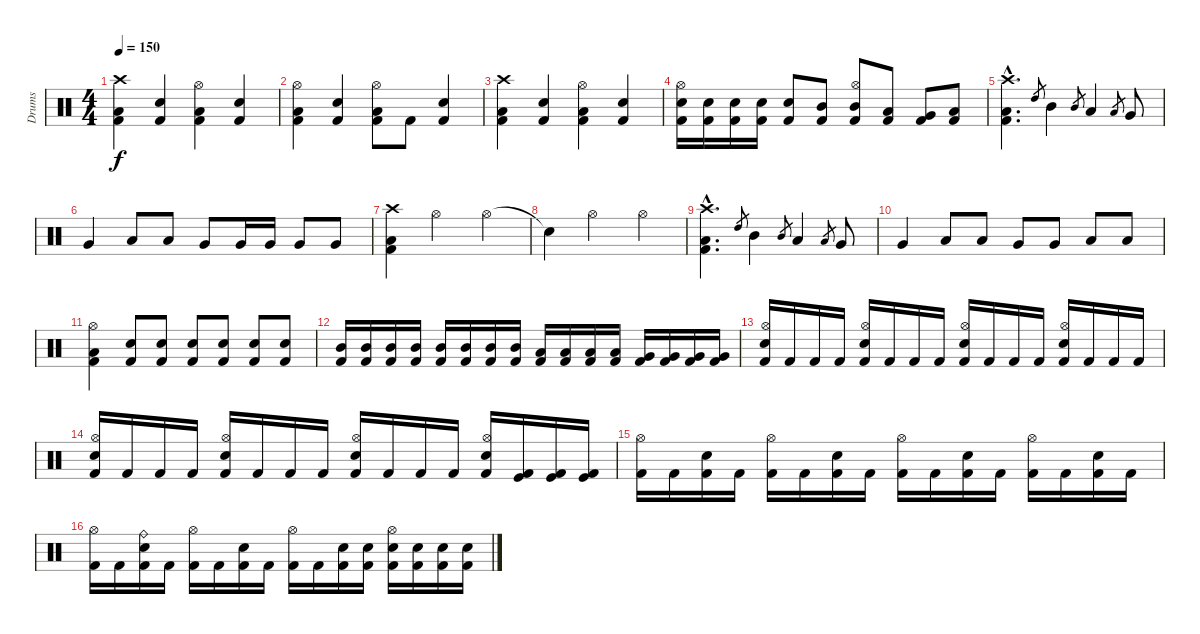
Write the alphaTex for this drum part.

\track ("Drums" "Drums") {instrument percussion}
\staff {score}
\articulation defaults
\ts (4 4)
\tempo 150
\clef neutral
\ks c
("Crash high (hit)" "Low Floor Tom (hit)" "Kick (hit) 2").4{dy f} ("Snare (hit) 2" "Kick (hit) 2").4 ("Hi-Hat (open)" "Low Floor Tom (hit)" "Kick (hit) 2").4 ("Snare (hit) 2" "Kick (hit) 2").4 |
("Hi-Hat (open)" "Low Floor Tom (hit)" "Kick (hit) 2").4 ("Snare (hit) 2" "Kick (hit) 2").4 ("Hi-Hat (open)" "Low Floor Tom (hit)" "Kick (hit) 2").8 "Kick (hit) 2".8 ("Snare (hit) 2" "Kick (hit) 2").4 |
("Crash high (hit)" "Low Floor Tom (hit)" "Kick (hit) 2").4 ("Snare (hit) 2" "Kick (hit) 2").4 ("Hi-Hat (open)" "Low Floor Tom (hit)" "Kick (hit) 2").4 ("Snare (hit) 2" "Kick (hit) 2").4 |
("Hi-Hat (open)" "Snare (hit) 2" "Kick (hit) 2").16 ("Snare (hit) 2" "Kick (hit) 2").16 ("Snare (hit) 2" "Kick (hit) 2").16 ("Snare (hit) 2" "Kick (hit) 2").16 ("Snare (hit) 2" "Kick (hit) 2").8 ("Mid Tom (hit)" "Kick (hit) 2").8 ("Hi-Hat (open)" "Mid Tom (hit)" "Kick (hit) 2").8 ("Low Tom (hit)" "Kick (hit) 2").8 ("Very Low Tom (hit)" "Kick (hit) 2").8 ("Low Floor Tom (hit)" "Kick (hit) 2").8 |
("Crash high (hit)"{hac} "Low Floor Tom (hit)"{hac} "Kick (hit) 2"{hac}).4{d} "High Tom (hit)".8{gr} "Mid Tom (hit)".4 "Mid Tom (hit)".8{gr} "Low Tom (hit)".4 "Low Tom (hit)".8{gr} "Very Low Tom (hit)".8 |
"Very Low Tom (hit)".4 "Low Floor Tom (hit)".8 "Low Floor Tom (hit)".8 "Very Low Tom (hit)".8 "Very Low Tom (hit)".16 "Very Low Tom (hit)".16 "Very Low Tom (hit)".8 "Very Low Tom (hit)".8 |
("Crash high (hit)" "Low Floor Tom (hit)" "Kick (hit) 2").4 "Hi-Hat (open)".2 "Hi-Hat (open)".4 |
"Snare (hit)"{t}.4 "Hi-Hat (open)".2 "Hi-Hat (open)".4 |
("Crash high (hit)"{hac} "Low Floor Tom (hit)"{hac} "Kick (hit) 2"{hac}).4{d} "High Tom (hit)".8{gr} "Mid Tom (hit)".4 "Mid Tom (hit)".8{gr} "Low Tom (hit)".4 "Low Tom (hit)".8{gr} "Very Low Tom (hit)".8 |
"Very Low Tom (hit)".4 "Low Floor Tom (hit)".8 "Low Floor Tom (hit)".8 "Very Low Tom (hit)".8 "Very Low Tom (hit)".8 "Low Floor Tom (hit)".8 "Low Floor Tom (hit)".8 |
("Hi-Hat (open)" "Low Floor Tom (hit)" "Kick (hit) 2").4 ("Snare (hit) 2" "Kick (hit) 2").8{volume 7} ("Snare (hit) 2" "Kick (hit) 2").8{volume 13} ("Snare (hit) 2" "Kick (hit) 2").8 ("Snare (hit) 2" "Kick (hit) 2").8 ("Snare (hit) 2" "Kick (hit) 2").8 ("Snare (hit) 2" "Kick (hit) 2").8 |
("Mid Tom (hit)" "Kick (hit) 2").16 ("Mid Tom (hit)" "Kick (hit) 2").16 ("Mid Tom (hit)" "Kick (hit) 2").16 ("Mid Tom (hit)" "Kick (hit) 2").16 ("Mid Tom (hit)" "Kick (hit) 2").16 ("Mid Tom (hit)" "Kick (hit) 2").16 ("Mid Tom (hit)" "Kick (hit) 2").16 ("Mid Tom (hit)" "Kick (hit) 2").16 ("Low Tom (hit)" "Kick (hit) 2").16 ("Low Tom (hit)" "Kick (hit) 2").16 ("Low Tom (hit)" "Kick (hit) 2").16 ("Low Tom (hit)" "Kick (hit) 2").16 ("Very Low Tom (hit)" "Kick (hit) 2").16 ("Very Low Tom (hit)" "Kick (hit) 2").16 ("Very Low Tom (hit)" "Kick (hit) 2").16 ("Very Low Tom (hit)" "Kick (hit) 2").16 |
("Hi-Hat (open)" "Electric Snare (hit)" "Kick (hit) 2").16 "Kick (hit) 2".16 "Kick (hit) 2".16 "Kick (hit) 2".16 ("Hi-Hat (open)" "Electric Snare (hit)" "Kick (hit) 2").16 "Kick (hit) 2".16 "Kick (hit) 2".16 "Kick (hit) 2".16 ("Hi-Hat (open)" "Electric Snare (hit)" "Kick (hit) 2").16 "Kick (hit) 2".16 "Kick (hit) 2".16 "Kick (hit) 2".16 ("Hi-Hat (open)" "Electric Snare (hit)" "Kick (hit) 2").16 "Kick (hit) 2".16 "Kick (hit) 2".16 "Kick (hit) 2".16 |
("Hi-Hat (open)" "Electric Snare (hit)" "Kick (hit) 2").16 "Kick (hit) 2".16 "Kick (hit) 2".16 "Kick (hit) 2".16 ("Hi-Hat (open)" "Electric Snare (hit)" "Kick (hit) 2").16 "Kick (hit) 2".16 "Kick (hit) 2".16 "Kick (hit) 2".16 ("Hi-Hat (open)" "Electric Snare (hit)" "Kick (hit) 2").16 "Kick (hit) 2".16 "Kick (hit) 2".16 "Kick (hit) 2".16 ("Hi-Hat (open)" "Electric Snare (hit)" "Kick (hit) 2").16 ("Kick (hit)" "Kick (hit) 2").16 ("Kick (hit)" "Kick (hit) 2").16 ("Kick (hit)" "Kick (hit) 2").16 |
("Hi-Hat (open)" "Kick (hit) 2").16 "Kick (hit) 2".16 ("Electric Snare (hit)" "Kick (hit) 2").16 "Kick (hit) 2".16 ("Hi-Hat (open)" "Kick (hit) 2").16 "Kick (hit) 2".16 ("Electric Snare (hit)" "Kick (hit) 2").16 "Kick (hit) 2".16 ("Hi-Hat (open)" "Kick (hit) 2").16 "Kick (hit) 2".16 ("Electric Snare (hit)" "Kick (hit) 2").16 "Kick (hit) 2".16 ("Hi-Hat (open)" "Kick (hit) 2").16 "Kick (hit) 2".16 ("Electric Snare (hit)" "Kick (hit) 2").16 "Kick (hit) 2".16 |
("Hi-Hat (open)" "Kick (hit) 2").16 "Kick (hit) 2".16 ("Ride (bell)" "Electric Snare (hit)" "Kick (hit) 2").16 "Kick (hit) 2".16 ("Hi-Hat (open)" "Kick (hit) 2").16 "Kick (hit) 2".16 ("Electric Snare (hit)" "Kick (hit) 2").16 "Kick (hit) 2".16 ("Hi-Hat (open)" "Kick (hit) 2").16 "Kick (hit) 2".16 ("Snare (hit) 2" "Kick (hit) 2").16 ("Snare (hit) 2" "Kick (hit) 2").16 ("Hi-Hat (open)" "Snare (hit) 2" "Kick (hit) 2").16 ("Snare (hit) 2" "Kick (hit) 2").16 ("Snare (hit) 2" "Kick (hit) 2").16 ("Snare (hit) 2" "Kick (hit) 2").16
